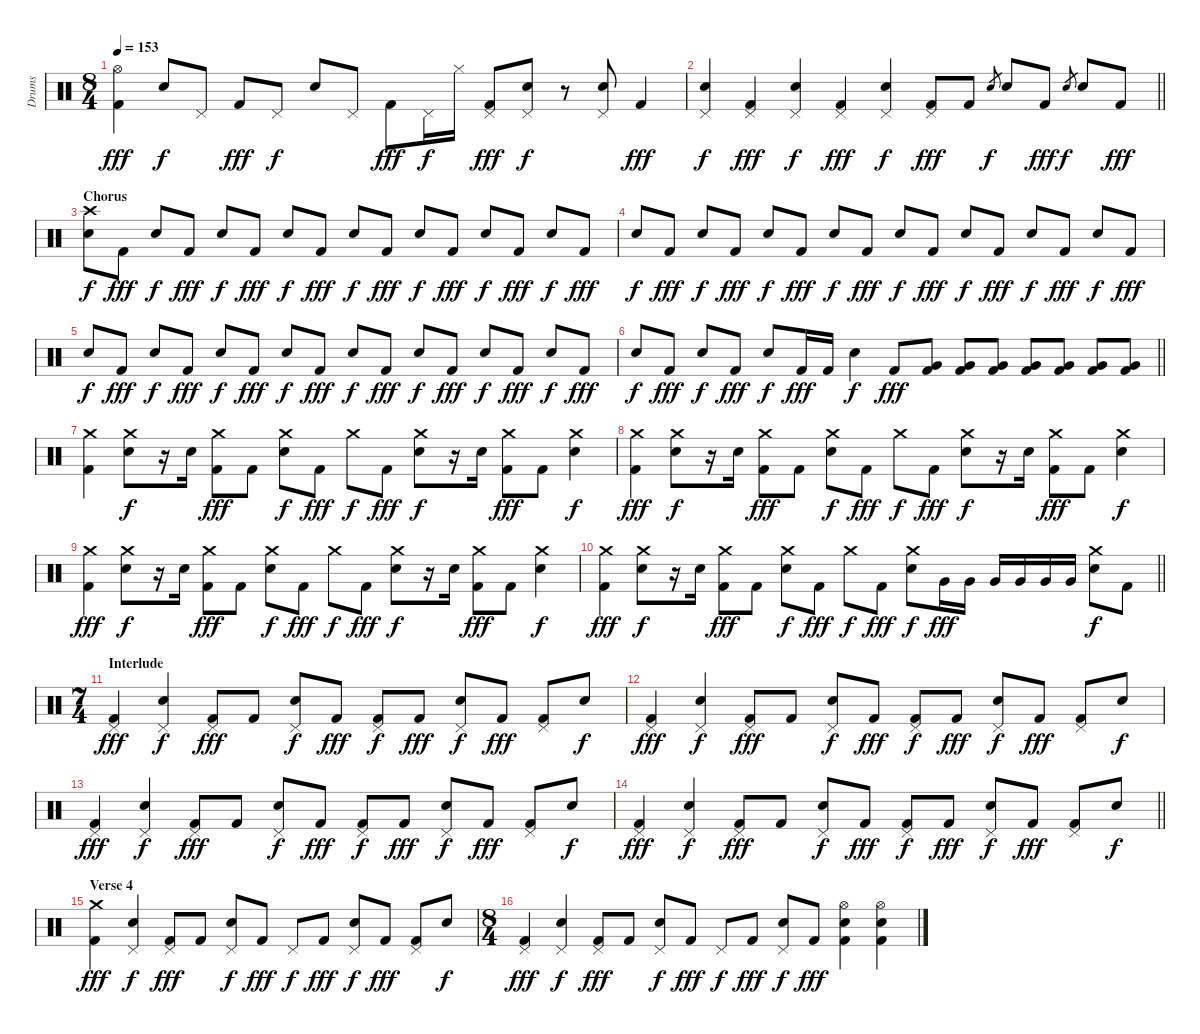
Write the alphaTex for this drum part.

\track ("Drums" "Drums") {instrument percussion}
\staff {score}
\articulation defaults
\ts (8 4)
\tempo 153
\clef neutral
\ks c
("Hi-Hat (open)" "Kick (hit) 2").4{dy fff} "Electric Snare (hit)".8{dy f} "Pedal Hi-Hat (hit)".8 "Kick (hit) 2".8{dy fff} "Pedal Hi-Hat (hit)".8{dy f} "Electric Snare (hit)".8 "Pedal Hi-Hat (hit)".8 "Kick (hit) 2".8{dy fff} "Pedal Hi-Hat (hit)".16{dy f} "Hi-Hat (closed)".16 ("Pedal Hi-Hat (hit)" "Kick (hit) 2").8{dy fff} ("Pedal Hi-Hat (hit)" "Electric Snare (hit)").8{dy f} r.8 ("Pedal Hi-Hat (hit)" "Electric Snare (hit)").8 "Kick (hit) 2".4{dy fff} |
\barLineRight lightlight
("Pedal Hi-Hat (hit)" "Electric Snare (hit)").4{dy f} ("Pedal Hi-Hat (hit)" "Kick (hit) 2").4{dy fff} ("Pedal Hi-Hat (hit)" "Electric Snare (hit)").4{dy f} ("Pedal Hi-Hat (hit)" "Kick (hit) 2").4{dy fff} ("Pedal Hi-Hat (hit)" "Electric Snare (hit)").4{dy f} ("Pedal Hi-Hat (hit)" "Kick (hit) 2").8{dy fff} "Kick (hit) 2".8 "Electric Snare (hit)".8{gr dy f} "Electric Snare (hit)".8 "Kick (hit) 2".8{dy fff} "Electric Snare (hit)".8{gr dy f} "Electric Snare (hit)".8 "Kick (hit) 2".8{dy fff} |
\section ("" "Chorus")
("Crash high (hit)" "Electric Snare (hit)").8{dy f} "Kick (hit) 2".8{dy fff} "Electric Snare (hit)".8{dy f} "Kick (hit) 2".8{dy fff} "Electric Snare (hit)".8{dy f} "Kick (hit) 2".8{dy fff} "Electric Snare (hit)".8{dy f} "Kick (hit) 2".8{dy fff} "Electric Snare (hit)".8{dy f} "Kick (hit) 2".8{dy fff} "Electric Snare (hit)".8{dy f} "Kick (hit) 2".8{dy fff} "Electric Snare (hit)".8{dy f} "Kick (hit) 2".8{dy fff} "Electric Snare (hit)".8{dy f} "Kick (hit) 2".8{dy fff} |
"Electric Snare (hit)".8{dy f} "Kick (hit) 2".8{dy fff} "Electric Snare (hit)".8{dy f} "Kick (hit) 2".8{dy fff} "Electric Snare (hit)".8{dy f} "Kick (hit) 2".8{dy fff} "Electric Snare (hit)".8{dy f} "Kick (hit) 2".8{dy fff} "Electric Snare (hit)".8{dy f} "Kick (hit) 2".8{dy fff} "Electric Snare (hit)".8{dy f} "Kick (hit) 2".8{dy fff} "Electric Snare (hit)".8{dy f} "Kick (hit) 2".8{dy fff} "Electric Snare (hit)".8{dy f} "Kick (hit) 2".8{dy fff} |
"Electric Snare (hit)".8{dy f} "Kick (hit) 2".8{dy fff} "Electric Snare (hit)".8{dy f} "Kick (hit) 2".8{dy fff} "Electric Snare (hit)".8{dy f} "Kick (hit) 2".8{dy fff} "Electric Snare (hit)".8{dy f} "Kick (hit) 2".8{dy fff} "Electric Snare (hit)".8{dy f} "Kick (hit) 2".8{dy fff} "Electric Snare (hit)".8{dy f} "Kick (hit) 2".8{dy fff} "Electric Snare (hit)".8{dy f} "Kick (hit) 2".8{dy fff} "Electric Snare (hit)".8{dy f} "Kick (hit) 2".8{dy fff} |
\barLineRight lightlight "Electric Snare (hit)".8{dy f} "Kick (hit) 2".8{dy fff} "Electric Snare (hit)".8{dy f} "Kick (hit) 2".8{dy fff} "Electric Snare (hit)".8{dy f} "Kick (hit) 2".16{dy fff} "Kick (hit) 2".16 "Electric Snare (hit)".4{dy f} "Kick (hit) 2".8{dy fff}
("Very Low Tom (hit)" "Kick (hit) 2").8 ("Very Low Tom (hit)" "Kick (hit) 2").8 ("Very Low Tom (hit)" "Kick (hit) 2").8 ("Very Low Tom (hit)" "Kick (hit) 2").8 ("Very Low Tom (hit)" "Kick (hit) 2").8 ("Very Low Tom (hit)" "Kick (hit) 2").8 ("Very Low Tom (hit)" "Kick (hit) 2").8 |
("Crash medium (hit)" "Kick (hit) 2").4 ("Crash medium (hit)" "Electric Snare (hit)").8{dy f} r.16 "Electric Snare (hit)".16 ("Crash medium (hit)" "Kick (hit) 2").8{dy fff} "Kick (hit) 2".8 ("Crash medium (hit)" "Electric Snare (hit)").8{dy f} "Kick (hit) 2".8{dy fff} "Crash medium (hit)".8{dy f} "Kick (hit) 2".8{dy fff} ("Crash medium (hit)" "Electric Snare (hit)").8{dy f} r.16 "Electric Snare (hit)".16 ("Crash medium (hit)" "Kick (hit) 2").8{dy fff} "Kick (hit) 2".8 ("Crash medium (hit)" "Electric Snare (hit)").4{dy f} |
("Crash medium (hit)" "Kick (hit) 2").4{dy fff} ("Crash medium (hit)" "Electric Snare (hit)").8{dy f} r.16 "Electric Snare (hit)".16 ("Crash medium (hit)" "Kick (hit) 2").8{dy fff} "Kick (hit) 2".8 ("Crash medium (hit)" "Electric Snare (hit)").8{dy f} "Kick (hit) 2".8{dy fff} "Crash medium (hit)".8{dy f} "Kick (hit) 2".8{dy fff} ("Crash medium (hit)" "Electric Snare (hit)").8{dy f} r.16 "Electric Snare (hit)".16 ("Crash medium (hit)" "Kick (hit) 2").8{dy fff} "Kick (hit) 2".8 ("Crash medium (hit)" "Electric Snare (hit)").4{dy f} |
("Crash medium (hit)" "Kick (hit) 2").4{dy fff} ("Crash medium (hit)" "Electric Snare (hit)").8{dy f} r.16 "Electric Snare (hit)".16 ("Crash medium (hit)" "Kick (hit) 2").8{dy fff} "Kick (hit) 2".8 ("Crash medium (hit)" "Electric Snare (hit)").8{dy f} "Kick (hit) 2".8{dy fff} "Crash medium (hit)".8{dy f} "Kick (hit) 2".8{dy fff} ("Crash medium (hit)" "Electric Snare (hit)").8{dy f} r.16 "Electric Snare (hit)".16 ("Crash medium (hit)" "Kick (hit) 2").8{dy fff} "Kick (hit) 2".8 ("Crash medium (hit)" "Electric Snare (hit)").4{dy f} |
\barLineRight lightlight
("Crash medium (hit)" "Kick (hit) 2").4{dy fff} ("Crash medium (hit)" "Electric Snare (hit)").8{dy f} r.16 "Electric Snare (hit)".16 ("Crash medium (hit)" "Kick (hit) 2").8{dy fff} "Kick (hit) 2".8 ("Crash medium (hit)" "Electric Snare (hit)").8{dy f} "Kick (hit) 2".8{dy fff} "Crash medium (hit)".8{dy f} "Kick (hit) 2".8{dy fff} ("Crash medium (hit)" "Electric Snare (hit)").8{dy f} "Very Low Tom (hit)".16{dy fff} "Very Low Tom (hit)".16 "Very Low Tom (hit)".16 "Very Low Tom (hit)".16 "Very Low Tom (hit)".16 "Very Low Tom (hit)".16 ("Crash medium (hit)" "Electric Snare (hit)").8{dy f} "Kick (hit) 2".8 |
\ts (7 4)
\section ("" "Interlude")
("Pedal Hi-Hat (hit)" "Kick (hit) 2").4{dy fff} ("Pedal Hi-Hat (hit)" "Electric Snare (hit)").4{dy f} ("Pedal Hi-Hat (hit)" "Kick (hit) 2").8{dy fff} "Kick (hit) 2".8 ("Pedal Hi-Hat (hit)" "Electric Snare (hit)").8{dy f} "Kick (hit) 2".8{dy fff} ("Pedal Hi-Hat (hit)" "Kick (hit) 2").8{dy f} "Kick (hit) 2".8{dy fff} ("Pedal Hi-Hat (hit)" "Electric Snare (hit)").8{dy f} "Kick (hit) 2".8{dy fff} ("Pedal Hi-Hat (hit)" "Kick (hit) 2").8 "Electric Snare (hit)".8{dy f} |
("Pedal Hi-Hat (hit)" "Kick (hit) 2").4{dy fff} ("Pedal Hi-Hat (hit)" "Electric Snare (hit)").4{dy f} ("Pedal Hi-Hat (hit)" "Kick (hit) 2").8{dy fff} "Kick (hit) 2".8 ("Pedal Hi-Hat (hit)" "Electric Snare (hit)").8{dy f} "Kick (hit) 2".8{dy fff} ("Pedal Hi-Hat (hit)" "Kick (hit) 2").8{dy f} "Kick (hit) 2".8{dy fff} ("Pedal Hi-Hat (hit)" "Electric Snare (hit)").8{dy f} "Kick (hit) 2".8{dy fff} ("Pedal Hi-Hat (hit)" "Kick (hit) 2").8 "Electric Snare (hit)".8{dy f} |
("Pedal Hi-Hat (hit)" "Kick (hit) 2").4{dy fff} ("Pedal Hi-Hat (hit)" "Electric Snare (hit)").4{dy f} ("Pedal Hi-Hat (hit)" "Kick (hit) 2").8{dy fff} "Kick (hit) 2".8 ("Pedal Hi-Hat (hit)" "Electric Snare (hit)").8{dy f} "Kick (hit) 2".8{dy fff} ("Pedal Hi-Hat (hit)" "Kick (hit) 2").8{dy f} "Kick (hit) 2".8{dy fff} ("Pedal Hi-Hat (hit)" "Electric Snare (hit)").8{dy f} "Kick (hit) 2".8{dy fff} ("Pedal Hi-Hat (hit)" "Kick (hit) 2").8 "Electric Snare (hit)".8{dy f} |
\barLineRight lightlight
("Pedal Hi-Hat (hit)" "Kick (hit) 2").4{dy fff} ("Pedal Hi-Hat (hit)" "Electric Snare (hit)").4{dy f} ("Pedal Hi-Hat (hit)" "Kick (hit) 2").8{dy fff} "Kick (hit) 2".8 ("Pedal Hi-Hat (hit)" "Electric Snare (hit)").8{dy f} "Kick (hit) 2".8{dy fff} ("Pedal Hi-Hat (hit)" "Kick (hit) 2").8{dy f} "Kick (hit) 2".8{dy fff} ("Pedal Hi-Hat (hit)" "Electric Snare (hit)").8{dy f} "Kick (hit) 2".8{dy fff} ("Pedal Hi-Hat (hit)" "Kick (hit) 2").8 "Electric Snare (hit)".8{dy f} |
\section ("" "Verse 4")
("Crash medium (hit)" "Kick (hit) 2").4{dy fff} ("Pedal Hi-Hat (hit)" "Electric Snare (hit)").4{dy f} ("Pedal Hi-Hat (hit)" "Kick (hit) 2").8{dy fff} "Kick (hit) 2".8 ("Pedal Hi-Hat (hit)" "Electric Snare (hit)").8{dy f} "Kick (hit) 2".8{dy fff} "Pedal Hi-Hat (hit)".8{dy f} "Kick (hit) 2".8{dy fff} ("Pedal Hi-Hat (hit)" "Electric Snare (hit)").8{dy f} "Kick (hit) 2".8{dy fff} ("Pedal Hi-Hat (hit)" "Kick (hit) 2").8 "Electric Snare (hit)".8{dy f} |
\ts (8 4)
("Pedal Hi-Hat (hit)" "Kick (hit) 2").4{dy fff} ("Pedal Hi-Hat (hit)" "Electric Snare (hit)").4{dy f} ("Pedal Hi-Hat (hit)" "Kick (hit) 2").8{dy fff} "Kick (hit) 2".8 ("Pedal Hi-Hat (hit)" "Electric Snare (hit)").8{dy f} "Kick (hit) 2".8{dy fff} "Pedal Hi-Hat (hit)".8{dy f} "Kick (hit) 2".8{dy fff} ("Pedal Hi-Hat (hit)" "Electric Snare (hit)").8{dy f} "Kick (hit) 2".8{dy fff} ("Hi-Hat (open)" "Electric Snare (hit)" "Kick (hit) 2").4 ("Hi-Hat (open)" "Electric Snare (hit)" "Kick (hit) 2").4
